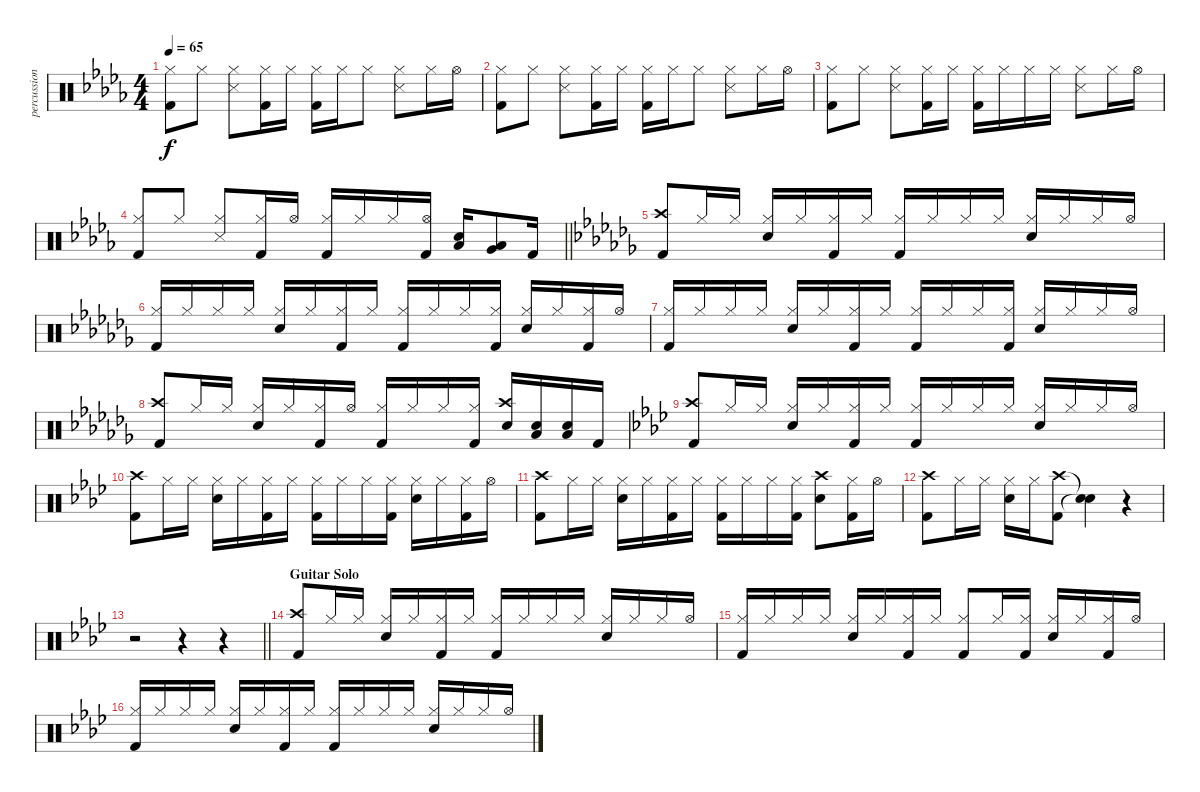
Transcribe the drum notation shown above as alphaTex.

\track ("percussion" "percussion") {instrument percussion}
\staff {score}
\articulation defaults
\ts (4 4)
\tempo 65
\clef neutral
\ks db
("Hi-Hat (closed)" "Kick (hit) 2").8{dy f} "Hi-Hat (closed)".8 ("Snare (side stick) 3" "Hi-Hat (closed)").8 ("Hi-Hat (closed)" "Kick (hit) 2").16 "Hi-Hat (closed)".16 ("Hi-Hat (closed)" "Kick (hit) 2").16 "Hi-Hat (closed)".16 "Hi-Hat (closed)".8 ("Snare (side stick) 3" "Hi-Hat (closed)").8 "Hi-Hat (closed)".16 "Hi-Hat (open)".16 |
("Hi-Hat (closed)" "Kick (hit) 2").8 "Hi-Hat (closed)".8 ("Snare (side stick) 3" "Hi-Hat (closed)").8 ("Hi-Hat (closed)" "Kick (hit) 2").16 "Hi-Hat (closed)".16 ("Hi-Hat (closed)" "Kick (hit) 2").16 "Hi-Hat (closed)".16 "Hi-Hat (closed)".8 ("Snare (side stick) 3" "Hi-Hat (closed)").8 "Hi-Hat (closed)".16 "Hi-Hat (open)".16 |
("Hi-Hat (closed)" "Kick (hit) 2").8 "Hi-Hat (closed)".8 ("Snare (side stick) 3" "Hi-Hat (closed)").8 ("Hi-Hat (closed)" "Kick (hit) 2").16 "Hi-Hat (closed)".16 ("Hi-Hat (closed)" "Kick (hit) 2").16 "Hi-Hat (closed)".16 "Hi-Hat (closed)".16 "Hi-Hat (closed)".16 ("Snare (side stick) 3" "Hi-Hat (closed)").8 "Hi-Hat (closed)".16 "Hi-Hat (open)".16 |
\barLineRight lightlight
("Hi-Hat (closed)" "Kick (hit) 2").8{beam Up} "Hi-Hat (closed)".8{beam Up} ("Snare (side stick) 3" "Hi-Hat (closed)").8{beam Up} ("Hi-Hat (closed)" "Kick (hit) 2").16{beam Up} "Hi-Hat (open)".16{beam Up} ("Hi-Hat (closed)" "Kick (hit) 2").16{beam Up} "Hi-Hat (closed)".16{beam Up} "Hi-Hat (closed)".16{beam Up} ("Hi-Hat (open)" "Kick (hit) 2").16{beam Up} ("Low Tom (hit)" "Snare (hit) 2").16 ("Very Low Tom (hit)" "Low Tom (hit)").8 "Kick (hit) 2".16 |
\ks cb
("Crash high (hit)" "Kick (hit) 2").8{beam Up} "Hi-Hat (closed)".16{beam Up} "Hi-Hat (closed)".16{beam Up} ("Snare (hit) 2" "Hi-Hat (closed)").16{beam Up} "Hi-Hat (closed)".16{beam Up} ("Hi-Hat (closed)" "Kick (hit) 2").16{beam Up} "Hi-Hat (closed)".16{beam Up} ("Hi-Hat (closed)" "Kick (hit) 2").16{beam Up} "Hi-Hat (closed)".16{beam Up} "Hi-Hat (closed)".16{beam Up} "Hi-Hat (closed)".16{beam Up} ("Snare (hit) 2" "Hi-Hat (closed)").16{beam Up} "Hi-Hat (closed)".16{beam Up} "Hi-Hat (closed)".16{beam Up} "Hi-Hat (open)".16{beam Up} |
("Hi-Hat (closed)" "Kick (hit) 2").16{beam Up} "Hi-Hat (closed)".16{beam Up} "Hi-Hat (closed)".16{beam Up} "Hi-Hat (closed)".16{beam Up} ("Snare (hit) 2" "Hi-Hat (closed)").16{beam Up} "Hi-Hat (closed)".16{beam Up} ("Hi-Hat (closed)" "Kick (hit) 2").16{beam Up} "Hi-Hat (closed)".16{beam Up} ("Hi-Hat (closed)" "Kick (hit) 2").16{beam Up} "Hi-Hat (closed)".16{beam Up} "Hi-Hat (closed)".16{beam Up} ("Hi-Hat (closed)" "Kick (hit) 2").16{beam Up} ("Snare (hit) 2" "Hi-Hat (closed)").16{beam Up} "Hi-Hat (closed)".16{beam Up} ("Hi-Hat (closed)" "Kick (hit) 2").16{beam Up} "Hi-Hat (open)".16{beam Up} |
("Hi-Hat (closed)" "Kick (hit) 2").16{beam Up} "Hi-Hat (closed)".16{beam Up} "Hi-Hat (closed)".16{beam Up} "Hi-Hat (closed)".16{beam Up} ("Snare (hit) 2" "Hi-Hat (closed)").16{beam Up} "Hi-Hat (closed)".16{beam Up} ("Hi-Hat (closed)" "Kick (hit) 2").16{beam Up} "Hi-Hat (closed)".16{beam Up} ("Hi-Hat (closed)" "Kick (hit) 2").16{beam Up} "Hi-Hat (closed)".16{beam Up} "Hi-Hat (closed)".16{beam Up} ("Hi-Hat (closed)" "Kick (hit) 2").16{beam Up} ("Snare (hit) 2" "Hi-Hat (closed)").16{beam Up} "Hi-Hat (closed)".16{beam Up} "Hi-Hat (closed)".16{beam Up} "Hi-Hat (open)".16{beam Up} |
("Crash high (hit)" "Kick (hit) 2").8{beam Up} "Hi-Hat (closed)".16{beam Up} "Hi-Hat (closed)".16{beam Up} ("Snare (hit) 2" "Hi-Hat (closed)").16{beam Up} "Hi-Hat (closed)".16{beam Up} ("Hi-Hat (closed)" "Kick (hit) 2").16{beam Up} "Hi-Hat (open)".16{beam Up} ("Hi-Hat (closed)" "Kick (hit) 2").16{beam Up} "Hi-Hat (closed)".16{beam Up} "Hi-Hat (closed)".16{beam Up} ("Hi-Hat (closed)" "Kick (hit) 2").16{beam Up} ("Crash high (hit)" "Snare (hit) 2").16{beam Up} ("Low Tom (hit)" "Snare (hit) 2").16{beam Up} ("Low Tom (hit)" "Snare (hit) 2").16{beam Up} "Kick (hit) 2".16{beam Up} |
\ks ab
("Crash high (hit)" "Kick (hit) 2").8{beam Up} "Hi-Hat (closed)".16{beam Up} "Hi-Hat (closed)".16{beam Up} ("Snare (hit) 2" "Hi-Hat (closed)").16{beam Up} "Hi-Hat (closed)".16{beam Up} ("Hi-Hat (closed)" "Kick (hit) 2").16{beam Up} "Hi-Hat (closed)".16{beam Up} ("Hi-Hat (closed)" "Kick (hit) 2").16{beam Up} "Hi-Hat (closed)".16{beam Up} "Hi-Hat (closed)".16{beam Up} "Hi-Hat (closed)".16{beam Up} ("Snare (hit) 2" "Hi-Hat (closed)").16{beam Up} "Hi-Hat (closed)".16{beam Up} "Hi-Hat (closed)".16{beam Up} "Hi-Hat (open)".16{beam Up} |
("Crash high (hit)" "Kick (hit) 2").8 "Hi-Hat (closed)".16 "Hi-Hat (closed)".16 ("Snare (hit) 2" "Hi-Hat (closed)").16 "Hi-Hat (closed)".16 ("Hi-Hat (closed)" "Kick (hit) 2").16 "Hi-Hat (closed)".16 ("Hi-Hat (closed)" "Kick (hit) 2").16 "Hi-Hat (closed)".16 "Hi-Hat (closed)".16 ("Hi-Hat (closed)" "Kick (hit) 2").16 ("Snare (hit) 2" "Hi-Hat (closed)").16 "Hi-Hat (closed)".16 ("Hi-Hat (closed)" "Kick (hit) 2").16 "Hi-Hat (open)".16 |
("Crash high (hit)" "Kick (hit) 2").8 "Hi-Hat (closed)".16 "Hi-Hat (closed)".16 ("Snare (hit) 2" "Hi-Hat (closed)").16 "Hi-Hat (closed)".16 ("Hi-Hat (closed)" "Kick (hit) 2").16 "Hi-Hat (closed)".16 ("Hi-Hat (closed)" "Kick (hit) 2").16 "Hi-Hat (closed)".16 "Hi-Hat (closed)".16 ("Hi-Hat (closed)" "Kick (hit) 2").16 ("Crash high (hit)" "Snare (hit) 2").8 ("Hi-Hat (closed)" "Kick (hit) 2").16 "Hi-Hat (open)".16 |
("Crash high (hit)" "Kick (hit) 2").8 "Hi-Hat (closed)".16 "Hi-Hat (closed)".16 ("Snare (hit) 2" "Hi-Hat (closed)").16 "Hi-Hat (closed)".16 ("Crash high (hit)" "Kick (hit) 2").8 ("Snare (hit)"{t} "Snare (hit)"{t}).4 r.4 |
\barLineRight lightlight
r.2 r.4 r.4 |
\section ("" "Guitar Solo")
("Crash high (hit)" "Kick (hit) 2").8{beam Up} "Hi-Hat (closed)".16{beam Up} "Hi-Hat (closed)".16{beam Up} ("Snare (hit) 2" "Hi-Hat (closed)").16{beam Up} "Hi-Hat (closed)".16{beam Up} ("Hi-Hat (closed)" "Kick (hit) 2").16{beam Up} "Hi-Hat (closed)".16{beam Up} ("Hi-Hat (closed)" "Kick (hit) 2").16{beam Up} "Hi-Hat (closed)".16{beam Up} "Hi-Hat (closed)".16{beam Up} "Hi-Hat (closed)".16{beam Up} ("Snare (hit) 2" "Hi-Hat (closed)").16{beam Up} "Hi-Hat (closed)".16{beam Up} "Hi-Hat (closed)".16{beam Up} "Hi-Hat (open)".16{beam Up} |
("Hi-Hat (closed)" "Kick (hit) 2").16{beam Up} "Hi-Hat (closed)".16{beam Up} "Hi-Hat (closed)".16{beam Up} "Hi-Hat (closed)".16{beam Up} ("Snare (hit) 2" "Hi-Hat (closed)").16{beam Up} "Hi-Hat (closed)".16{beam Up} ("Hi-Hat (closed)" "Kick (hit) 2").16{beam Up} "Hi-Hat (closed)".16{beam Up} ("Hi-Hat (closed)" "Kick (hit) 2").8{beam Up} "Hi-Hat (closed)".16{beam Up} ("Hi-Hat (closed)" "Kick (hit) 2").16{beam Up} ("Snare (hit) 2" "Hi-Hat (closed)").16{beam Up} "Hi-Hat (closed)".16{beam Up} ("Hi-Hat (closed)" "Kick (hit) 2").16{beam Up} "Hi-Hat (open)".16{beam Up} |
("Hi-Hat (closed)" "Kick (hit) 2").16{beam Up} "Hi-Hat (closed)".16{beam Up} "Hi-Hat (closed)".16{beam Up} "Hi-Hat (closed)".16{beam Up} ("Snare (hit) 2" "Hi-Hat (closed)").16{beam Up} "Hi-Hat (closed)".16{beam Up} ("Hi-Hat (closed)" "Kick (hit) 2").16{beam Up} "Hi-Hat (closed)".16{beam Up} ("Hi-Hat (closed)" "Kick (hit) 2").16{beam Up} "Hi-Hat (closed)".16{beam Up} "Hi-Hat (closed)".16{beam Up} "Hi-Hat (closed)".16{beam Up} ("Snare (hit) 2" "Hi-Hat (closed)").16{beam Up} "Hi-Hat (closed)".16{beam Up} "Hi-Hat (closed)".16{beam Up} "Hi-Hat (open)".16{beam Up}
